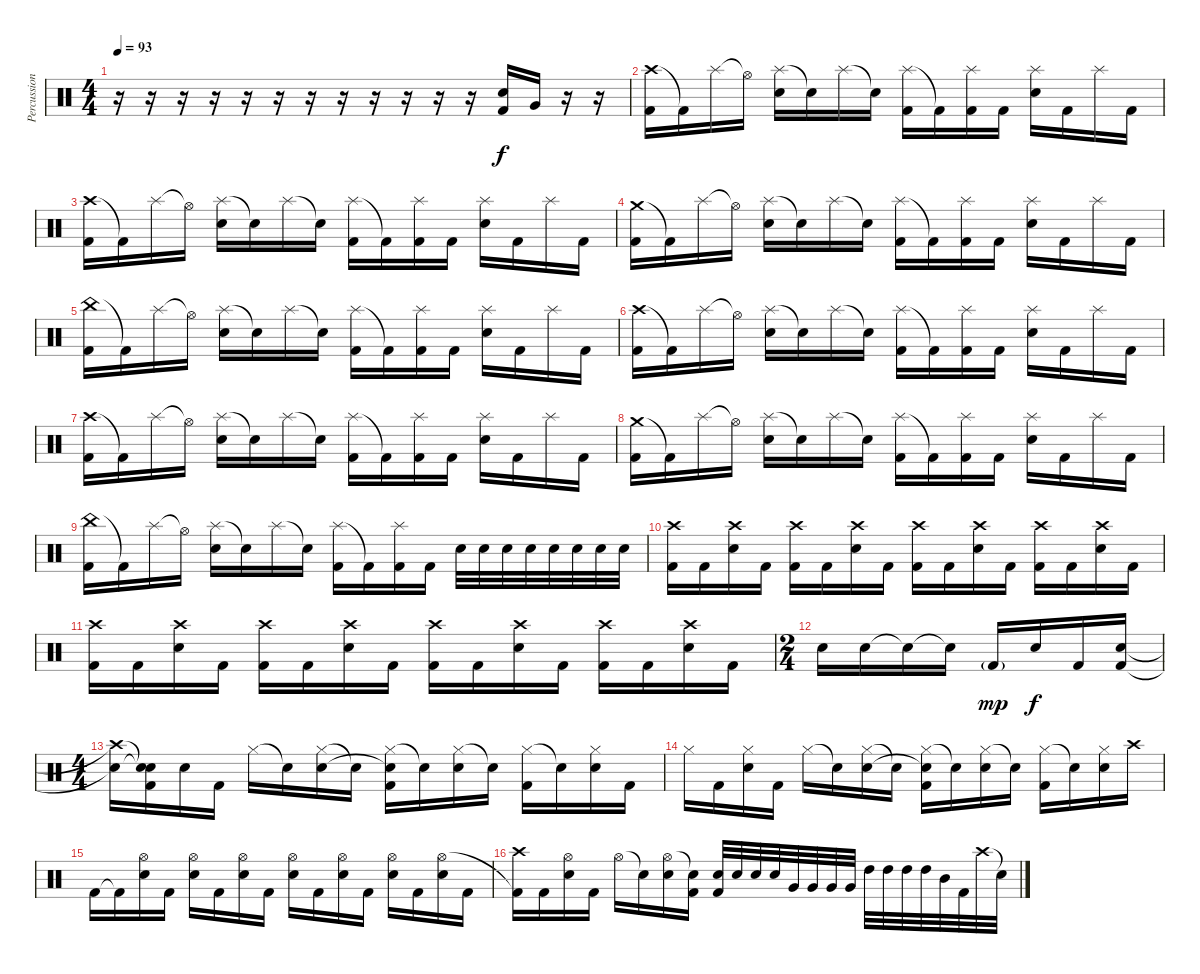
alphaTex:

\track ("Percussion" "Percussion") {instrument percussion}
\staff {score}
\articulation defaults
\ts (4 4)
\tempo 93
\clef neutral
\ks c
r.16{dy f} r.16 r.16 r.16 r.16 r.16 r.16 r.16 r.16 r.16 r.16 r.16 ("Electric Snare (hit)" "Kick (hit) 2").16 "Very Low Tom (hit)".16 r.16 r.16 |
("Crash high (hit)" "Kick (hit) 2").16 "Kick (hit) 2"{t}.16 "Splash (hit)".16 "Hi-Hat (open)"{t}.16 ("Splash (hit)" "Electric Snare (hit)").16 "Snare (hit)"{t}.16 "Splash (hit)".16 "Snare (hit)"{t}.16 ("Splash (hit)" "Kick (hit) 2").16 "Kick (hit) 2"{t}.16 ("Splash (hit)" "Kick (hit) 2").16 "Kick (hit) 2".16 ("Electric Snare (hit)" "Splash (hit)").16 "Kick (hit) 2".16 "Splash (hit)".16 "Kick (hit) 2".16 |
("Crash high (hit)" "Kick (hit) 2").16 "Kick (hit) 2"{t}.16 "Splash (hit)".16 "Hi-Hat (open)"{t}.16 ("Splash (hit)" "Electric Snare (hit)").16 "Snare (hit)"{t}.16 "Splash (hit)".16 "Snare (hit)"{t}.16 ("Splash (hit)" "Kick (hit) 2").16 "Kick (hit) 2"{t}.16 ("Splash (hit)" "Kick (hit) 2").16 "Kick (hit) 2".16 ("Electric Snare (hit)" "Splash (hit)").16 "Kick (hit) 2".16 "Splash (hit)".16 "Kick (hit) 2".16 |
("Crash medium (hit)" "Kick (hit) 2").16 "Kick (hit) 2"{t}.16 "Splash (hit)".16 "Hi-Hat (open)"{t}.16 ("Splash (hit)" "Electric Snare (hit)").16 "Snare (hit)"{t}.16 "Splash (hit)".16 "Snare (hit)"{t}.16 ("Splash (hit)" "Kick (hit) 2").16 "Kick (hit) 2"{t}.16 ("Splash (hit)" "Kick (hit) 2").16 "Kick (hit) 2".16 ("Electric Snare (hit)" "Splash (hit)").16 "Kick (hit) 2".16 "Splash (hit)".16 "Kick (hit) 2".16 |
("China (hit)" "Kick (hit) 2").16 "Kick (hit) 2"{t}.16 "Splash (hit)".16 "Hi-Hat (open)"{t}.16 ("Splash (hit)" "Electric Snare (hit)").16 "Snare (hit)"{t}.16 "Splash (hit)".16 "Snare (hit)"{t}.16 ("Splash (hit)" "Kick (hit) 2").16 "Kick (hit) 2"{t}.16 ("Splash (hit)" "Kick (hit) 2").16 "Kick (hit) 2".16 ("Electric Snare (hit)" "Splash (hit)").16 "Kick (hit) 2".16 "Splash (hit)".16 "Kick (hit) 2".16 |
("Crash high (hit)" "Kick (hit) 2").16 "Kick (hit) 2"{t}.16 "Splash (hit)".16 "Hi-Hat (open)"{t}.16 ("Splash (hit)" "Electric Snare (hit)").16 "Snare (hit)"{t}.16 "Splash (hit)".16 "Snare (hit)"{t}.16 ("Splash (hit)" "Kick (hit) 2").16 "Kick (hit) 2"{t}.16 ("Splash (hit)" "Kick (hit) 2").16 "Kick (hit) 2".16 ("Electric Snare (hit)" "Splash (hit)").16 "Kick (hit) 2".16 "Splash (hit)".16 "Kick (hit) 2".16 |
("Crash high (hit)" "Kick (hit) 2").16 "Kick (hit) 2"{t}.16 "Splash (hit)".16 "Hi-Hat (open)"{t}.16 ("Splash (hit)" "Electric Snare (hit)").16 "Snare (hit)"{t}.16 "Splash (hit)".16 "Snare (hit)"{t}.16 ("Splash (hit)" "Kick (hit) 2").16 "Kick (hit) 2"{t}.16 ("Splash (hit)" "Kick (hit) 2").16 "Kick (hit) 2".16 ("Electric Snare (hit)" "Splash (hit)").16 "Kick (hit) 2".16 "Splash (hit)".16 "Kick (hit) 2".16 |
("Crash medium (hit)" "Kick (hit) 2").16 "Kick (hit) 2"{t}.16 "Splash (hit)".16 "Hi-Hat (open)"{t}.16 ("Splash (hit)" "Electric Snare (hit)").16 "Snare (hit)"{t}.16 "Splash (hit)".16 "Snare (hit)"{t}.16 ("Splash (hit)" "Kick (hit) 2").16 "Kick (hit) 2"{t}.16 ("Splash (hit)" "Kick (hit) 2").16 "Kick (hit) 2".16 ("Electric Snare (hit)" "Splash (hit)").16 "Kick (hit) 2".16 "Splash (hit)".16 "Kick (hit) 2".16 |
("China (hit)" "Kick (hit) 2").16 "Kick (hit) 2"{t}.16 "Splash (hit)".16 "Hi-Hat (open)"{t}.16 ("Splash (hit)" "Electric Snare (hit)").16 "Snare (hit)"{t}.16 "Splash (hit)".16 "Snare (hit)"{t}.16 ("Splash (hit)" "Kick (hit) 2").16 "Kick (hit) 2"{t}.16 ("Splash (hit)" "Kick (hit) 2").16 "Kick (hit) 2".16 "Electric Snare (hit)".32 "Electric Snare (hit)".32 "Electric Snare (hit)".32 "Electric Snare (hit)".32 "Electric Snare (hit)".32 "Electric Snare (hit)".32 "Electric Snare (hit)".32 "Electric Snare (hit)".32 |
("Crash high (hit)" "Kick (hit) 2").16 "Kick (hit) 2".16 ("Electric Snare (hit)" "Crash high (hit)").16 "Kick (hit) 2".16 ("Crash high (hit)" "Kick (hit) 2").16 "Kick (hit) 2".16 ("Electric Snare (hit)" "Crash high (hit)").16 "Kick (hit) 2".16 ("Crash high (hit)" "Kick (hit) 2").16 "Kick (hit) 2".16 ("Electric Snare (hit)" "Crash high (hit)").16 "Kick (hit) 2".16 ("Crash high (hit)" "Kick (hit) 2").16 "Kick (hit) 2".16 ("Electric Snare (hit)" "Crash high (hit)").16 "Kick (hit) 2".16 |
("Crash high (hit)" "Kick (hit) 2").16 "Kick (hit) 2".16 ("Electric Snare (hit)" "Crash high (hit)").16 "Kick (hit) 2".16 ("Crash high (hit)" "Kick (hit) 2").16 "Kick (hit) 2".16 ("Electric Snare (hit)" "Crash high (hit)").16 "Kick (hit) 2".16 ("Crash high (hit)" "Kick (hit) 2").16 "Kick (hit) 2".16 ("Electric Snare (hit)" "Crash high (hit)").16 "Kick (hit) 2".16 ("Crash high (hit)" "Kick (hit) 2").16 "Kick (hit) 2".16 ("Electric Snare (hit)" "Crash high (hit)").16 "Kick (hit) 2".16 |
\ts (2 4)
"Electric Snare (hit)".16 "Electric Snare (hit)".16 "Snare (hit)"{t}.16 "Snare (hit)"{t}.16 "Kick (hit) 2"{g}.16{dy mp} "Electric Snare (hit)".16{dy f} "Kick (hit) 2".16 ("Kick (hit) 2" "Electric Snare (hit)").16 |
\ts (4 4)
("Snare (hit)"{t} "Crash high (hit)"{t}).16 ("Snare (hit)"{t} "Snare (hit)"{t} "Kick (hit) 2").16 "Electric Snare (hit)".16 "Kick (hit) 2".16 "Hi-Hat (closed)".16 "Snare (hit)"{t}.16 ("Hi-Hat (closed)" "Electric Snare (hit)").16 "Snare (hit)"{t}.16 ("Hi-Hat (closed)" "Snare (hit)"{t} "Kick (hit) 2").16 "Snare (hit)"{t}.16 ("Hi-Hat (closed)" "Electric Snare (hit)").16 "Snare (hit)"{t}.16 ("Hi-Hat (closed)" "Kick (hit) 2").16 "Snare (hit)"{t}.16 ("Hi-Hat (closed)" "Electric Snare (hit)").16 "Kick (hit) 2".16 |
"Hi-Hat (closed)".16 "Kick (hit) 2".16 ("Hi-Hat (closed)" "Electric Snare (hit)").16 "Kick (hit) 2".16 "Hi-Hat (closed)".16 "Snare (hit)"{t}.16 ("Hi-Hat (closed)" "Electric Snare (hit)").16 "Snare (hit)"{t}.16 ("Hi-Hat (closed)" "Snare (hit)"{t} "Kick (hit) 2").16 "Snare (hit)"{t}.16 ("Hi-Hat (closed)" "Electric Snare (hit)").16 "Snare (hit)"{t}.16 ("Hi-Hat (closed)" "Kick (hit) 2").16 "Snare (hit)"{t}.16 ("Hi-Hat (closed)" "Electric Snare (hit)").16 "Crash high (hit)".16 |
"Kick (hit) 2".16 "Kick (hit) 2"{t}.16 ("Electric Snare (hit)" "Hi-Hat (open)").16 "Kick (hit) 2".16 ("Electric Snare (hit)" "Hi-Hat (open)").16 "Kick (hit) 2".16 ("Electric Snare (hit)" "Hi-Hat (open)").16 "Kick (hit) 2".16 ("Hi-Hat (open)" "Electric Snare (hit)").16 "Kick (hit) 2".16 ("Electric Snare (hit)" "Hi-Hat (open)").16 "Kick (hit) 2".16 ("Electric Snare (hit)" "Hi-Hat (open)").16 "Kick (hit) 2".16 ("Electric Snare (hit)" "Hi-Hat (open)").16 "Kick (hit) 2".16 |
("Crash high (hit)" "Kick (hit) 2"{t}).16 "Kick (hit) 2".16 ("Hi-Hat (open)" "Electric Snare (hit)").16 "Kick (hit) 2".16 "Hi-Hat (open)".16 "Snare (hit)"{t}.16 ("Hi-Hat (open)" "Electric Snare (hit)").16 ("Snare (hit)"{t} "Kick (hit) 2").16 ("Electric Snare (hit)" "Kick (hit) 2").32 "Electric Snare (hit)".32 "Electric Snare (hit)".32 "Electric Snare (hit)".32 "Very Low Tom (hit)".32 "Very Low Tom (hit)".32 "Very Low Tom (hit)".32 "Very Low Tom (hit)".32 "High Tom (hit)".32 "High Tom (hit)".32 "High Tom (hit)".32 "High Tom (hit)".32 "Mid Tom (hit)".32 "Kick (hit) 2".32 "Crash high (hit)".32 "Electric Snare (hit)"{t}.32
